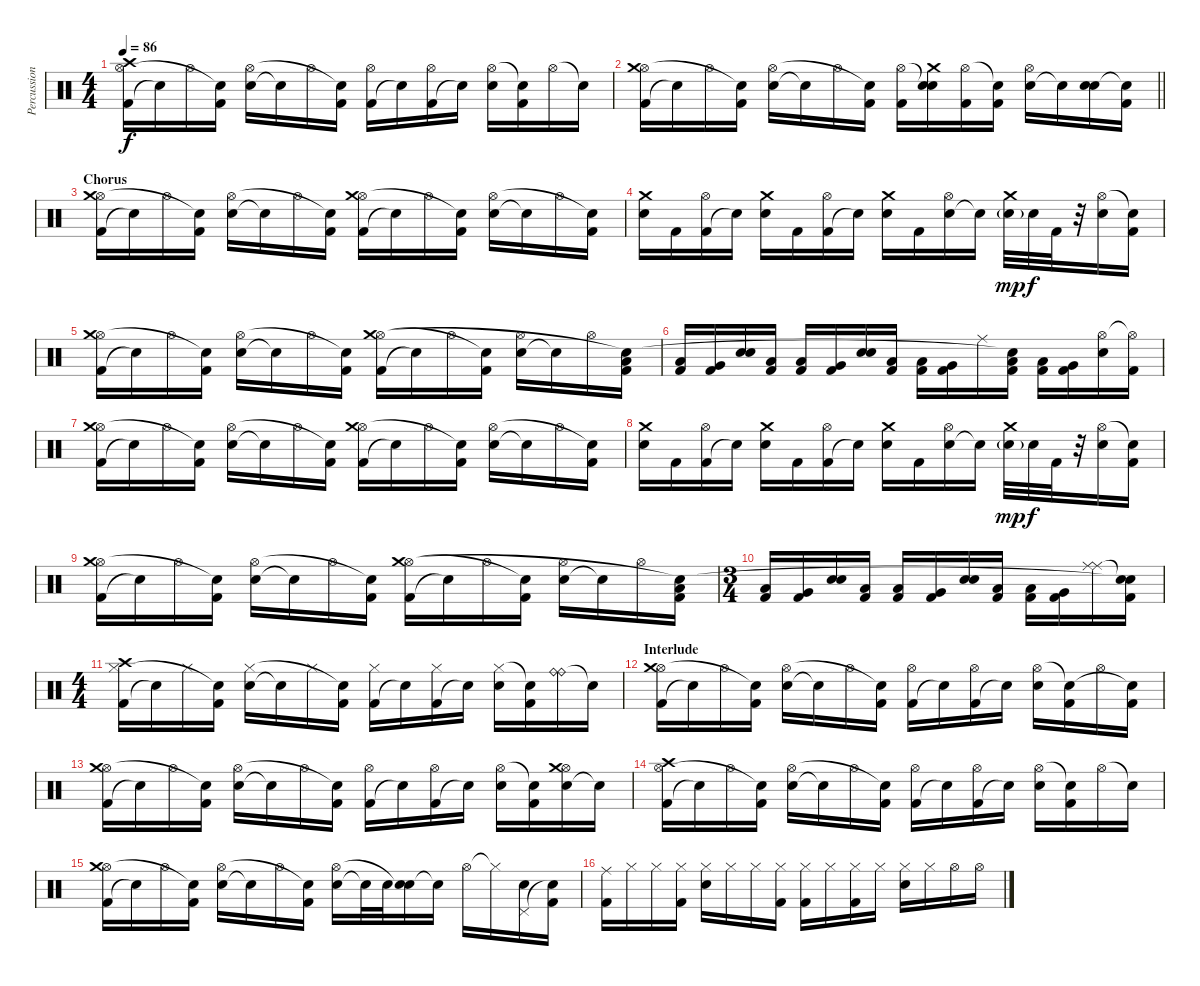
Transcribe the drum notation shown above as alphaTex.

\track ("Percussion" "Percussion") {instrument percussion}
\staff {score}
\articulation defaults
\ts (4 4)
\tempo 86
\clef neutral
\ks c
("Kick (hit) 2" "Hi-Hat (open)" "Crash high (hit)").16{dy f} "Snare (hit)"{t}.16 "Hi-Hat (open)".16 ("Kick (hit) 2" "Snare (hit)"{t}).16 ("Electric Snare (hit)" "Hi-Hat (open)").16 "Snare (hit)"{t}.16 "Hi-Hat (open)".16 ("Kick (hit) 2" "Snare (hit)"{t}).16 ("Kick (hit) 2" "Hi-Hat (open)").16 "Snare (hit)"{t}.16 ("Kick (hit) 2" "Hi-Hat (open)").16 "Snare (hit)"{t}.16 ("Electric Snare (hit)" "Hi-Hat (open)").16 ("Kick (hit) 2" "Snare (hit)"{t}).16 "Hi-Hat (open)".16 "Snare (hit)"{t}.16 |
\barLineRight lightlight
("Kick (hit) 2" "Hi-Hat (open)" "Crash medium (hit)").16 "Snare (hit)"{t}.16 "Hi-Hat (open)".16 ("Kick (hit) 2" "Snare (hit)"{t}).16 ("Electric Snare (hit)" "Hi-Hat (open)").16 "Snare (hit)"{t}.16 "Hi-Hat (open)".16 ("Kick (hit) 2" "Snare (hit)"{t}).16 ("Kick (hit) 2" "Hi-Hat (open)").16 ("Electric Snare (hit)" "Snare (hit)"{t} "Crash medium (hit)").16 ("Kick (hit) 2" "Hi-Hat (open)").16 ("Kick (hit) 2" "Snare (hit)"{t}).16 ("Electric Snare (hit)" "Hi-Hat (open)").16 "Snare (hit)"{t}.16 ("Electric Snare (hit)" "Electric Snare (hit)").16 ("Kick (hit) 2" "Snare (hit)"{t}).16 |
\section ("" "Chorus")
("Kick (hit) 2" "Hi-Hat (open)" "Crash medium (hit)").16 "Snare (hit)"{t}.16 "Hi-Hat (open)".16 ("Kick (hit) 2" "Snare (hit)"{t}).16 ("Electric Snare (hit)" "Hi-Hat (open)").16 "Snare (hit)"{t}.16 "Hi-Hat (open)".16 ("Kick (hit) 2" "Snare (hit)"{t}).16 ("Kick (hit) 2" "Hi-Hat (open)" "Crash medium (hit)").16 "Snare (hit)"{t}.16 "Hi-Hat (open)".16 ("Kick (hit) 2" "Snare (hit)"{t}).16 ("Electric Snare (hit)" "Hi-Hat (open)").16 "Snare (hit)"{t}.16 "Hi-Hat (open)".16 ("Kick (hit) 2" "Snare (hit)"{t}).16 |
("Electric Snare (hit)" "Crash medium (hit)").16 "Kick (hit) 2".16 ("Kick (hit) 2" "Hi-Hat (open)").16 "Snare (hit)"{t}.16 ("Electric Snare (hit)" "Crash medium (hit)").16 "Kick (hit) 2".16 ("Kick (hit) 2" "Hi-Hat (open)").16 "Snare (hit)"{t}.16 ("Electric Snare (hit)" "Crash medium (hit)").16 "Kick (hit) 2".16 ("Electric Snare (hit)" "Hi-Hat (open)").16 "Snare (hit)"{t}.16 ("Electric Snare (hit)"{g} "Crash medium (hit)").32{dy mp} "Electric Snare (hit)".32{dy f} "Kick (hit) 2".32 r.32 ("Electric Snare (hit)" "Hi-Hat (open)").16 ("Kick (hit) 2" "Snare (hit)"{t}).16 |
("Kick (hit) 2" "Hi-Hat (open)" "Crash medium (hit)").16 "Snare (hit)"{t}.16 "Hi-Hat (open)".16 ("Kick (hit) 2" "Snare (hit)"{t}).16 ("Electric Snare (hit)" "Hi-Hat (open)").16 "Snare (hit)"{t}.16 "Hi-Hat (open)".16 ("Kick (hit) 2" "Snare (hit)"{t}).16 ("Kick (hit) 2" "Hi-Hat (open)" "Crash medium (hit)").16 "Snare (hit)"{t}.16 "Hi-Hat (open)".16 ("Kick (hit) 2" "Snare (hit)"{t}).16 ("Electric Snare (hit)" "Hi-Hat (open)").16 "Snare (hit)"{t}.16 "Hi-Hat (open)".16 ("Kick (hit) 2" "Low Tom (hit)" "Snare (hit)"{t}).16 |
("Kick (hit) 2" "Low Tom (hit)").16 ("Kick (hit) 2" "Very Low Tom (hit)").16 ("Electric Snare (hit)" "Electric Snare (hit)").16 ("Kick (hit) 2" "Low Tom (hit)").16 ("Kick (hit) 2" "Low Tom (hit)").16 ("Kick (hit) 2" "Very Low Tom (hit)").16 ("Electric Snare (hit)" "Electric Snare (hit)").16 ("Kick (hit) 2" "Low Tom (hit)").16 ("Kick (hit) 2" "Low Tom (hit)").16 ("Kick (hit) 2" "Very Low Tom (hit)").16 "Ride (middle)".16 ("Kick (hit) 2" "Low Tom (hit)" "Snare (hit)"{t}).16 ("Kick (hit) 2" "Low Tom (hit)").16 ("Kick (hit) 2" "Very Low Tom (hit)").16 ("Electric Snare (hit)" "Hi-Hat (open)").16 ("Kick (hit) 2" "Hi-Hat (open)"{t}).16 |
("Kick (hit) 2" "Hi-Hat (open)" "Crash medium (hit)").16 "Snare (hit)"{t}.16 "Hi-Hat (open)".16 ("Kick (hit) 2" "Snare (hit)"{t}).16 ("Electric Snare (hit)" "Hi-Hat (open)").16 "Snare (hit)"{t}.16 "Hi-Hat (open)".16 ("Kick (hit) 2" "Snare (hit)"{t}).16 ("Kick (hit) 2" "Hi-Hat (open)" "Crash medium (hit)").16 "Snare (hit)"{t}.16 "Hi-Hat (open)".16 ("Kick (hit) 2" "Snare (hit)"{t}).16 ("Electric Snare (hit)" "Hi-Hat (open)").16 "Snare (hit)"{t}.16 "Hi-Hat (open)".16 ("Kick (hit) 2" "Snare (hit)"{t}).16 |
("Electric Snare (hit)" "Crash medium (hit)").16 "Kick (hit) 2".16 ("Kick (hit) 2" "Hi-Hat (open)").16 "Snare (hit)"{t}.16 ("Electric Snare (hit)" "Crash medium (hit)").16 "Kick (hit) 2".16 ("Kick (hit) 2" "Hi-Hat (open)").16 "Snare (hit)"{t}.16 ("Electric Snare (hit)" "Crash medium (hit)").16 "Kick (hit) 2".16 ("Electric Snare (hit)" "Hi-Hat (open)").16 "Snare (hit)"{t}.16 ("Electric Snare (hit)"{g} "Crash medium (hit)").32{dy mp} "Electric Snare (hit)".32{dy f} "Kick (hit) 2".32 r.32 ("Electric Snare (hit)" "Hi-Hat (open)").16 ("Kick (hit) 2" "Snare (hit)"{t}).16 |
("Kick (hit) 2" "Hi-Hat (open)" "Crash medium (hit)").16 "Snare (hit)"{t}.16 "Hi-Hat (open)".16 ("Kick (hit) 2" "Snare (hit)"{t}).16 ("Electric Snare (hit)" "Hi-Hat (open)").16 "Snare (hit)"{t}.16 "Hi-Hat (open)".16 ("Kick (hit) 2" "Snare (hit)"{t}).16 ("Kick (hit) 2" "Hi-Hat (open)" "Crash medium (hit)").16 "Snare (hit)"{t}.16 "Hi-Hat (open)".16 ("Kick (hit) 2" "Snare (hit)"{t}).16 ("Electric Snare (hit)" "Hi-Hat (open)").16 "Snare (hit)"{t}.16 "Hi-Hat (open)".16 ("Kick (hit) 2" "Low Tom (hit)" "Snare (hit)"{t}).16 |
\ts (3 4)
("Kick (hit) 2" "Low Tom (hit)").16 ("Kick (hit) 2" "Very Low Tom (hit)").16 ("Electric Snare (hit)" "Electric Snare (hit)").16 ("Kick (hit) 2" "Low Tom (hit)").16 ("Kick (hit) 2" "Low Tom (hit)").16 ("Kick (hit) 2" "Very Low Tom (hit)").16 ("Electric Snare (hit)" "Electric Snare (hit)").16 ("Kick (hit) 2" "Low Tom (hit)").16 ("Kick (hit) 2" "Low Tom (hit)").16 ("Kick (hit) 2" "Very Low Tom (hit)").16 ("Ride (middle)" "Ride (middle)").16 ("Kick (hit) 2" "Snare (hit)"{t} "Snare (hit)"{t}).16 |
\ts (4 4)
("Kick (hit) 2" "Hi-Hat (closed)" "Crash high (hit)").16 "Snare (hit)"{t}.16 "Hi-Hat (closed)".16 ("Kick (hit) 2" "Snare (hit)"{t}).16 ("Electric Snare (hit)" "Hi-Hat (closed)").16 "Snare (hit)"{t}.16 "Hi-Hat (closed)".16 ("Kick (hit) 2" "Snare (hit)"{t}).16 ("Kick (hit) 2" "Hi-Hat (closed)").16 "Snare (hit)"{t}.16 ("Kick (hit) 2" "Hi-Hat (closed)").16 "Snare (hit)"{t}.16 ("Electric Snare (hit)" "Hi-Hat (closed)").16 ("Kick (hit) 2" "Snare (hit)"{t}).16 ("Ride (bell)" "Ride (bell)").16 "Snare (hit)"{t}.16 |
\section ("" "Interlude")
("Kick (hit) 2" "Hi-Hat (open)" "Crash medium (hit)").16 "Snare (hit)"{t}.16 "Hi-Hat (open)".16 ("Kick (hit) 2" "Snare (hit)"{t}).16 ("Electric Snare (hit)" "Hi-Hat (open)").16 "Snare (hit)"{t}.16 "Hi-Hat (open)".16 ("Kick (hit) 2" "Snare (hit)"{t}).16 ("Kick (hit) 2" "Hi-Hat (open)").16 "Snare (hit)"{t}.16 ("Kick (hit) 2" "Hi-Hat (open)").16 "Snare (hit)"{t}.16 ("Electric Snare (hit)" "Hi-Hat (open)").16 ("Kick (hit) 2" "Snare (hit)"{t}).16 "Hi-Hat (open)".16 ("Kick (hit) 2" "Snare (hit)"{t}).16 |
("Kick (hit) 2" "Hi-Hat (open)" "Crash medium (hit)").16 "Snare (hit)"{t}.16 "Hi-Hat (open)".16 ("Kick (hit) 2" "Snare (hit)"{t}).16 ("Electric Snare (hit)" "Hi-Hat (open)").16 "Snare (hit)"{t}.16 "Hi-Hat (open)".16 ("Kick (hit) 2" "Snare (hit)"{t}).16 ("Kick (hit) 2" "Hi-Hat (open)").16 "Snare (hit)"{t}.16 ("Kick (hit) 2" "Hi-Hat (open)").16 "Snare (hit)"{t}.16 ("Electric Snare (hit)" "Hi-Hat (open)").16 ("Kick (hit) 2" "Snare (hit)"{t}).16 ("Electric Snare (hit)" "Hi-Hat (open)" "Crash medium (hit)").16 "Snare (hit)"{t}.16 |
("Kick (hit) 2" "Hi-Hat (open)" "Crash high (hit)").16 "Snare (hit)"{t}.16 "Hi-Hat (open)".16 ("Kick (hit) 2" "Snare (hit)"{t}).16 ("Electric Snare (hit)" "Hi-Hat (open)").16 "Snare (hit)"{t}.16 "Hi-Hat (open)".16 ("Kick (hit) 2" "Snare (hit)"{t}).16 ("Kick (hit) 2" "Hi-Hat (open)").16 "Snare (hit)"{t}.16 ("Kick (hit) 2" "Hi-Hat (open)").16 "Snare (hit)"{t}.16 ("Electric Snare (hit)" "Hi-Hat (open)").16 ("Kick (hit) 2" "Snare (hit)"{t}).16 "Hi-Hat (open)".16 "Snare (hit)"{t}.16 |
("Kick (hit) 2" "Hi-Hat (open)" "Crash medium (hit)").16 "Snare (hit)"{t}.16 "Hi-Hat (open)".16 ("Kick (hit) 2" "Snare (hit)"{t}).16 ("Electric Snare (hit)" "Hi-Hat (open)").16 "Snare (hit)"{t}.16 "Hi-Hat (open)".16 ("Kick (hit) 2" "Snare (hit)"{t}).16 ("Electric Snare (hit)" "Hi-Hat (open)").16 "Snare (hit)"{t}.32 "Electric Snare (hit)".32 ("Electric Snare (hit)" "Snare (hit)"{t}).16 "Snare (hit)"{t}.16 "Hi-Hat (open)".16 "Hi-Hat (closed)"{t}.16 ("Electric Snare (hit)" "Pedal Hi-Hat (hit)").16 ("Kick (hit) 2" "Snare (hit)"{t}).16 |
("Kick (hit) 2" "Ride (middle)").16 "Hi-Hat (closed)".16 "Hi-Hat (closed)".16 ("Kick (hit) 2" "Hi-Hat (closed)").16 ("Electric Snare (hit)" "Hi-Hat (closed)").16 "Hi-Hat (closed)".16 "Hi-Hat (closed)".16 ("Kick (hit) 2" "Hi-Hat (closed)").16 ("Kick (hit) 2" "Hi-Hat (closed)").16 "Hi-Hat (closed)".16 ("Kick (hit) 2" "Hi-Hat (closed)").16 "Hi-Hat (closed)".16 ("Electric Snare (hit)" "Hi-Hat (closed)").16 "Hi-Hat (closed)".16 "Hi-Hat (open)".16 "Hi-Hat (open)".16
